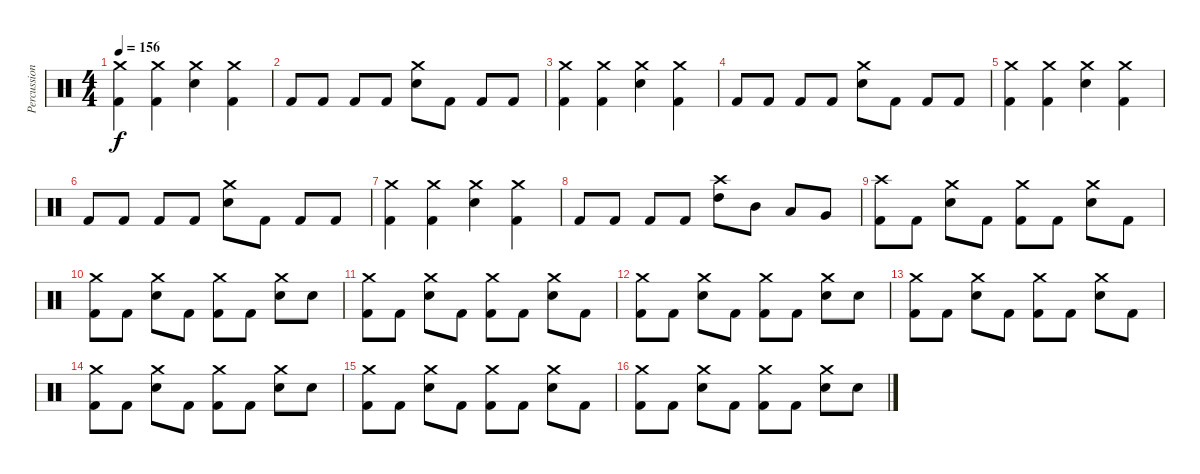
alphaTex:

\track ("Percussion" "Percussion") {instrument percussion}
\staff {score}
\articulation defaults
\ts (4 4)
\tempo 156
\clef neutral
\ks c
("Crash medium (hit)" "Kick (hit) 2").4{dy f} ("Crash medium (hit)" "Kick (hit) 2").4 ("Crash medium (hit)" "Electric Snare (hit)").4 ("Crash medium (hit)" "Kick (hit) 2").4 |
"Kick (hit) 2".8 "Kick (hit) 2".8 "Kick (hit) 2".8 "Kick (hit) 2".8 ("Crash medium (hit)" "Electric Snare (hit)").8 "Kick (hit) 2".8 "Kick (hit) 2".8 "Kick (hit) 2".8 |
("Crash medium (hit)" "Kick (hit) 2").4 ("Crash medium (hit)" "Kick (hit) 2").4 ("Crash medium (hit)" "Electric Snare (hit)").4 ("Crash medium (hit)" "Kick (hit) 2").4 |
"Kick (hit) 2".8 "Kick (hit) 2".8 "Kick (hit) 2".8 "Kick (hit) 2".8 ("Crash medium (hit)" "Electric Snare (hit)").8 "Kick (hit) 2".8 "Kick (hit) 2".8 "Kick (hit) 2".8 |
("Crash medium (hit)" "Kick (hit) 2").4 ("Crash medium (hit)" "Kick (hit) 2").4 ("Crash medium (hit)" "Electric Snare (hit)").4 ("Crash medium (hit)" "Kick (hit) 2").4 |
"Kick (hit) 2".8 "Kick (hit) 2".8 "Kick (hit) 2".8 "Kick (hit) 2".8 ("Crash medium (hit)" "Electric Snare (hit)").8 "Kick (hit) 2".8 "Kick (hit) 2".8 "Kick (hit) 2".8 |
("Crash medium (hit)" "Kick (hit) 2").4 ("Crash medium (hit)" "Kick (hit) 2").4 ("Crash medium (hit)" "Electric Snare (hit)").4 ("Crash medium (hit)" "Kick (hit) 2").4 |
"Kick (hit) 2".8 "Kick (hit) 2".8 "Kick (hit) 2".8 "Kick (hit) 2".8 ("Crash high (hit)" "High Tom (hit)").8 "Mid Tom (hit)".8 "Low Tom (hit)".8 "Very Low Tom (hit)".8 |
("Crash high (hit)" "Kick (hit) 2").8 "Kick (hit) 2".8 ("Crash medium (hit)" "Electric Snare (hit)").8 "Kick (hit) 2".8 ("Crash medium (hit)" "Kick (hit) 2").8 "Kick (hit) 2".8 ("Crash medium (hit)" "Electric Snare (hit)").8 "Kick (hit) 2".8 |
("Crash medium (hit)" "Kick (hit) 2").8 "Kick (hit) 2".8 ("Crash medium (hit)" "Electric Snare (hit)").8 "Kick (hit) 2".8 ("Crash medium (hit)" "Kick (hit) 2").8 "Kick (hit) 2".8 ("Crash medium (hit)" "Electric Snare (hit)").8 "Electric Snare (hit)".8 |
("Crash medium (hit)" "Kick (hit) 2").8 "Kick (hit) 2".8 ("Crash medium (hit)" "Electric Snare (hit)").8 "Kick (hit) 2".8 ("Crash medium (hit)" "Kick (hit) 2").8 "Kick (hit) 2".8 ("Crash medium (hit)" "Electric Snare (hit)").8 "Kick (hit) 2".8 |
("Crash medium (hit)" "Kick (hit) 2").8 "Kick (hit) 2".8 ("Crash medium (hit)" "Electric Snare (hit)").8 "Kick (hit) 2".8 ("Crash medium (hit)" "Kick (hit) 2").8 "Kick (hit) 2".8 ("Crash medium (hit)" "Electric Snare (hit)").8 "Electric Snare (hit)".8 |
("Crash medium (hit)" "Kick (hit) 2").8 "Kick (hit) 2".8 ("Crash medium (hit)" "Electric Snare (hit)").8 "Kick (hit) 2".8 ("Crash medium (hit)" "Kick (hit) 2").8 "Kick (hit) 2".8 ("Crash medium (hit)" "Electric Snare (hit)").8 "Kick (hit) 2".8 |
("Crash medium (hit)" "Kick (hit) 2").8 "Kick (hit) 2".8 ("Crash medium (hit)" "Electric Snare (hit)").8 "Kick (hit) 2".8 ("Crash medium (hit)" "Kick (hit) 2").8 "Kick (hit) 2".8 ("Crash medium (hit)" "Electric Snare (hit)").8 "Electric Snare (hit)".8 |
("Crash medium (hit)" "Kick (hit) 2").8 "Kick (hit) 2".8 ("Crash medium (hit)" "Electric Snare (hit)").8 "Kick (hit) 2".8 ("Crash medium (hit)" "Kick (hit) 2").8 "Kick (hit) 2".8 ("Crash medium (hit)" "Electric Snare (hit)").8 "Kick (hit) 2".8 |
("Crash medium (hit)" "Kick (hit) 2").8 "Kick (hit) 2".8 ("Crash medium (hit)" "Electric Snare (hit)").8 "Kick (hit) 2".8 ("Crash medium (hit)" "Kick (hit) 2").8 "Kick (hit) 2".8 ("Crash medium (hit)" "Electric Snare (hit)").8 "Electric Snare (hit)".8
